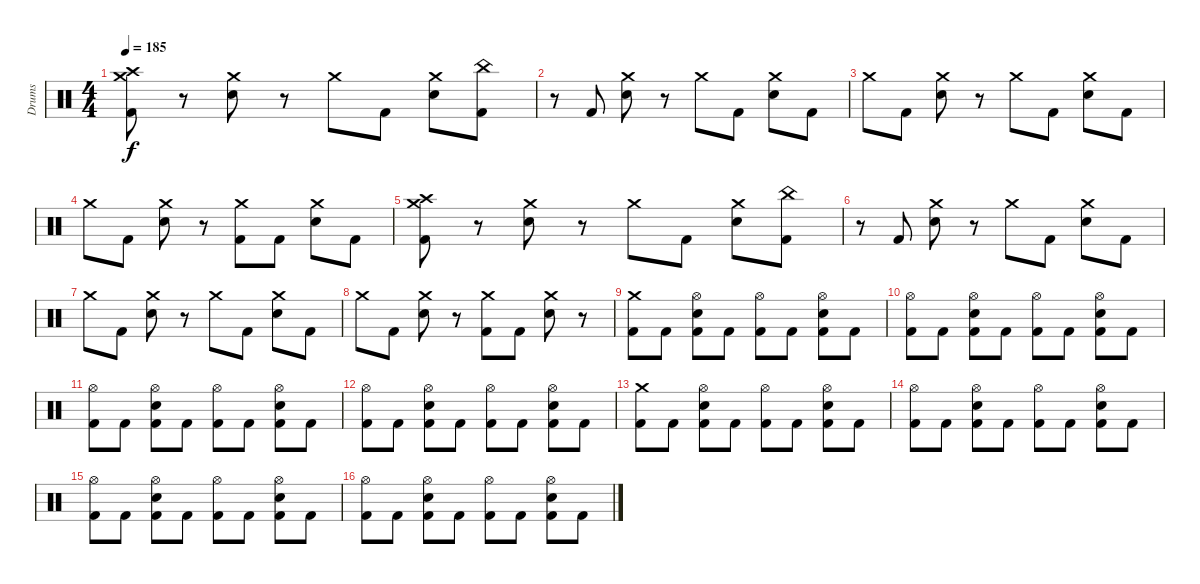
\track ("Drums" "Drums") {solo instrument percussion}
\staff {score}
\articulation defaults
\ts (4 4)
\tempo 185
\clef neutral
\ks c
("Crash medium (hit)" "Crash high (hit)" "Kick (hit) 2").8{dy f} r.8 ("Crash medium (hit)" "Snare (hit) 2").8 r.8 "Crash medium (hit)".8 "Kick (hit) 2".8 ("Crash medium (hit)" "Snare (hit) 2").8 ("China (hit)" "Kick (hit) 2").8 |
r.8 "Kick (hit) 2".8 ("Crash medium (hit)" "Snare (hit) 2").8 r.8 "Crash medium (hit)".8 "Kick (hit) 2".8 ("Crash medium (hit)" "Snare (hit) 2").8 "Kick (hit) 2".8 |
"Crash medium (hit)".8 "Kick (hit) 2".8 ("Crash medium (hit)" "Snare (hit) 2").8 r.8 "Crash medium (hit)".8 "Kick (hit) 2".8 ("Crash medium (hit)" "Snare (hit) 2").8 "Kick (hit) 2".8 |
"Crash medium (hit)".8 "Kick (hit) 2".8 ("Crash medium (hit)" "Snare (hit) 2").8 r.8 ("Crash medium (hit)" "Kick (hit) 2").8 "Kick (hit) 2".8 ("Crash medium (hit)" "Snare (hit) 2").8 "Kick (hit) 2".8 |
("Crash medium (hit)" "Crash high (hit)" "Kick (hit) 2").8 r.8 ("Crash medium (hit)" "Snare (hit) 2").8 r.8 "Crash medium (hit)".8 "Kick (hit) 2".8 ("Crash medium (hit)" "Snare (hit) 2").8 ("China (hit)" "Kick (hit) 2").8 |
r.8 "Kick (hit) 2".8 ("Crash medium (hit)" "Snare (hit) 2").8 r.8 "Crash medium (hit)".8 "Kick (hit) 2".8 ("Crash medium (hit)" "Snare (hit) 2").8 "Kick (hit) 2".8 |
"Crash medium (hit)".8 "Kick (hit) 2".8 ("Crash medium (hit)" "Snare (hit) 2").8 r.8 "Crash medium (hit)".8 "Kick (hit) 2".8 ("Crash medium (hit)" "Snare (hit) 2").8 "Kick (hit) 2".8 |
"Crash medium (hit)".8 "Kick (hit) 2".8 ("Crash medium (hit)" "Snare (hit) 2").8 r.8 ("Crash medium (hit)" "Kick (hit) 2").8 "Kick (hit) 2".8 ("Crash medium (hit)" "Snare (hit) 2").8 r.8 |
("Crash medium (hit)" "Kick (hit) 2").8 "Kick (hit) 2".8 ("Snare (hit) 2" "Hi-Hat (open)" "Kick (hit) 2").8 "Kick (hit) 2".8 ("Hi-Hat (open)" "Kick (hit) 2").8 "Kick (hit) 2".8 ("Snare (hit) 2" "Hi-Hat (open)" "Kick (hit) 2").8 "Kick (hit) 2".8 |
("Hi-Hat (open)" "Kick (hit) 2").8 "Kick (hit) 2".8 ("Snare (hit) 2" "Hi-Hat (open)" "Kick (hit) 2").8 "Kick (hit) 2".8 ("Hi-Hat (open)" "Kick (hit) 2").8 "Kick (hit) 2".8 ("Snare (hit) 2" "Hi-Hat (open)" "Kick (hit) 2").8 "Kick (hit) 2".8 |
("Hi-Hat (open)" "Kick (hit) 2").8 "Kick (hit) 2".8 ("Snare (hit) 2" "Hi-Hat (open)" "Kick (hit) 2").8 "Kick (hit) 2".8 ("Hi-Hat (open)" "Kick (hit) 2").8 "Kick (hit) 2".8 ("Snare (hit) 2" "Hi-Hat (open)" "Kick (hit) 2").8 "Kick (hit) 2".8 |
("Hi-Hat (open)" "Kick (hit) 2").8 "Kick (hit) 2".8 ("Snare (hit) 2" "Hi-Hat (open)" "Kick (hit) 2").8 "Kick (hit) 2".8 ("Hi-Hat (open)" "Kick (hit) 2").8 "Kick (hit) 2".8 ("Snare (hit) 2" "Hi-Hat (open)" "Kick (hit) 2").8 "Kick (hit) 2".8 |
("Crash medium (hit)" "Kick (hit) 2").8 "Kick (hit) 2".8 ("Snare (hit) 2" "Hi-Hat (open)" "Kick (hit) 2").8 "Kick (hit) 2".8 ("Hi-Hat (open)" "Kick (hit) 2").8 "Kick (hit) 2".8 ("Snare (hit) 2" "Hi-Hat (open)" "Kick (hit) 2").8 "Kick (hit) 2".8 |
("Hi-Hat (open)" "Kick (hit) 2").8 "Kick (hit) 2".8 ("Snare (hit) 2" "Hi-Hat (open)" "Kick (hit) 2").8 "Kick (hit) 2".8 ("Hi-Hat (open)" "Kick (hit) 2").8 "Kick (hit) 2".8 ("Snare (hit) 2" "Hi-Hat (open)" "Kick (hit) 2").8 "Kick (hit) 2".8 |
("Hi-Hat (open)" "Kick (hit) 2").8 "Kick (hit) 2".8 ("Snare (hit) 2" "Hi-Hat (open)" "Kick (hit) 2").8 "Kick (hit) 2".8 ("Hi-Hat (open)" "Kick (hit) 2").8 "Kick (hit) 2".8 ("Snare (hit) 2" "Hi-Hat (open)" "Kick (hit) 2").8 "Kick (hit) 2".8 |
("Hi-Hat (open)" "Kick (hit) 2").8 "Kick (hit) 2".8 ("Snare (hit) 2" "Hi-Hat (open)" "Kick (hit) 2").8 "Kick (hit) 2".8 ("Hi-Hat (open)" "Kick (hit) 2").8 "Kick (hit) 2".8 ("Snare (hit) 2" "Hi-Hat (open)" "Kick (hit) 2").8 "Kick (hit) 2".8
